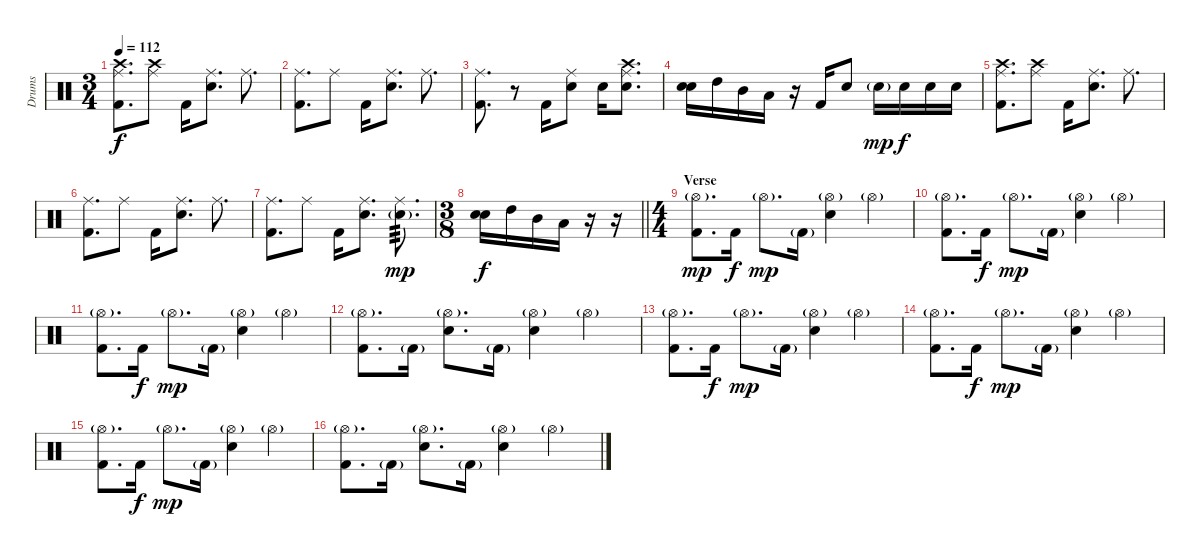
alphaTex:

\track ("Drums" "Drums") {instrument percussion}
\staff {score}
\articulation defaults
\ts (3 4)
\tempo 112
\clef neutral
\ks c
("Ride (middle)" "Crash high (hit)" "Kick (hit) 2").8{d dy f} ("Ride (middle)" "Crash high (hit)").8 "Kick (hit) 2".16 ("Ride (middle)" "Electric Snare (hit)").8{d} "Ride (middle)".8{d} |
("Ride (middle)" "Kick (hit) 2").8{d} "Ride (middle)".8 "Kick (hit) 2".16 ("Ride (middle)" "Electric Snare (hit)").8{d} "Ride (middle)".8{d} |
("Ride (middle)" "Kick (hit) 2").8{d} r.8 "Kick (hit) 2".16 ("Ride (middle)" "Electric Snare (hit)").8 "Electric Snare (hit)".16 ("Ride (middle)" "Crash high (hit)" "Electric Snare (hit)").8{d} |
("Electric Snare (hit)" "Electric Snare (hit)").16 "High Tom (hit)".16 "Mid Tom (hit)".16 "Low Tom (hit)".16 r.16 "Kick (hit) 2".16 "Electric Snare (hit)".8 "Electric Snare (hit)"{g}.16{dy mp} "Electric Snare (hit)".16{dy f} "Electric Snare (hit)".16 "Electric Snare (hit)".16 |
("Ride (middle)" "Crash high (hit)" "Kick (hit) 2").8{d} ("Ride (middle)" "Crash high (hit)").8 "Kick (hit) 2".16 ("Ride (middle)" "Electric Snare (hit)").8{d} "Ride (middle)".8{d} |
("Ride (middle)" "Kick (hit) 2").8{d} "Ride (middle)".8 "Kick (hit) 2".16 ("Ride (middle)" "Electric Snare (hit)").8{d} "Ride (middle)".8{d} |
("Ride (middle)" "Kick (hit) 2").8{d} "Ride (middle)".8 "Kick (hit) 2".16 ("Ride (middle)" "Electric Snare (hit)").8{d} ("Ride (middle)" "Electric Snare (hit)"{g}).8{d tp 3 dy mp} |
\ts (3 8)
\barLineRight lightlight
("Electric Snare (hit)" "Electric Snare (hit)").16{dy f} "High Tom (hit)".16 "Mid Tom (hit)".16 "Low Tom (hit)".16 r.16 r.16 |
\ts (4 4)
\section ("" "Verse")
("Hi-Hat (open)"{g} "Kick (hit) 2").8{d dy mp} "Kick (hit) 2".16{dy f} "Hi-Hat (open)"{g}.8{d dy mp} "Kick (hit) 2"{g}.16 ("Hi-Hat (open)"{g} "Snare (hit) 2").4 "Hi-Hat (open)"{g}.4 |
("Hi-Hat (open)"{g} "Kick (hit) 2").8{d} "Kick (hit) 2".16{dy f} "Hi-Hat (open)"{g}.8{d dy mp} "Kick (hit) 2"{g}.16 ("Hi-Hat (open)"{g} "Snare (hit) 2").4 "Hi-Hat (open)"{g}.4 |
("Hi-Hat (open)"{g} "Kick (hit) 2").8{d} "Kick (hit) 2".16{dy f} "Hi-Hat (open)"{g}.8{d dy mp} "Kick (hit) 2"{g}.16 ("Hi-Hat (open)"{g} "Snare (hit) 2").4 "Hi-Hat (open)"{g}.4 |
("Hi-Hat (open)"{g} "Kick (hit) 2").8{d} "Kick (hit) 2"{g}.16 ("Hi-Hat (open)"{g} "Snare (hit) 2").8{d} "Kick (hit) 2"{g}.16 ("Hi-Hat (open)"{g} "Snare (hit) 2").4 "Hi-Hat (open)"{g}.4 |
("Hi-Hat (open)"{g} "Kick (hit) 2").8{d} "Kick (hit) 2".16{dy f} "Hi-Hat (open)"{g}.8{d dy mp} "Kick (hit) 2"{g}.16 ("Hi-Hat (open)"{g} "Snare (hit) 2").4 "Hi-Hat (open)"{g}.4 |
("Hi-Hat (open)"{g} "Kick (hit) 2").8{d} "Kick (hit) 2".16{dy f} "Hi-Hat (open)"{g}.8{d dy mp} "Kick (hit) 2"{g}.16 ("Hi-Hat (open)"{g} "Snare (hit) 2").4 "Hi-Hat (open)"{g}.4 |
("Hi-Hat (open)"{g} "Kick (hit) 2").8{d} "Kick (hit) 2".16{dy f} "Hi-Hat (open)"{g}.8{d dy mp} "Kick (hit) 2"{g}.16 ("Hi-Hat (open)"{g} "Snare (hit) 2").4 "Hi-Hat (open)"{g}.4 |
("Hi-Hat (open)"{g} "Kick (hit) 2").8{d} "Kick (hit) 2"{g}.16 ("Hi-Hat (open)"{g} "Snare (hit) 2").8{d} "Kick (hit) 2"{g}.16 ("Hi-Hat (open)"{g} "Snare (hit) 2").4 "Hi-Hat (open)"{g}.4
